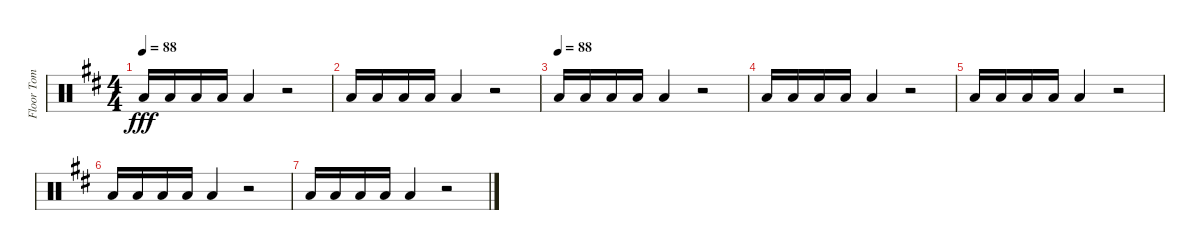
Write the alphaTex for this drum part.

\track ("Floor Tom" "Floor Tom") {instrument percussion}
\staff {score}
\articulation defaults
\ts (4 4)
\tempo 88
\clef neutral
\ks bminor "Low Floor Tom (hit)".16{dy fff} "Low Floor Tom (hit)".16 "Low Floor Tom (hit)".16 "Low Floor Tom (hit)".16 "Low Floor Tom (hit)".4
r.2 |
"Low Floor Tom (hit)".16 "Low Floor Tom (hit)".16 "Low Floor Tom (hit)".16 "Low Floor Tom (hit)".16 "Low Floor Tom (hit)".4 r.2 |
\tempo (88)
"Low Floor Tom (hit)".16 "Low Floor Tom (hit)".16 "Low Floor Tom (hit)".16 "Low Floor Tom (hit)".16 "Low Floor Tom (hit)".4 r.2 |
"Low Floor Tom (hit)".16 "Low Floor Tom (hit)".16 "Low Floor Tom (hit)".16 "Low Floor Tom (hit)".16 "Low Floor Tom (hit)".4 r.2 |
"Low Floor Tom (hit)".16 "Low Floor Tom (hit)".16 "Low Floor Tom (hit)".16 "Low Floor Tom (hit)".16 "Low Floor Tom (hit)".4 r.2 |
"Low Floor Tom (hit)".16 "Low Floor Tom (hit)".16 "Low Floor Tom (hit)".16 "Low Floor Tom (hit)".16 "Low Floor Tom (hit)".4 r.2 |
"Low Floor Tom (hit)".16 "Low Floor Tom (hit)".16 "Low Floor Tom (hit)".16 "Low Floor Tom (hit)".16 "Low Floor Tom (hit)".4 r.2
